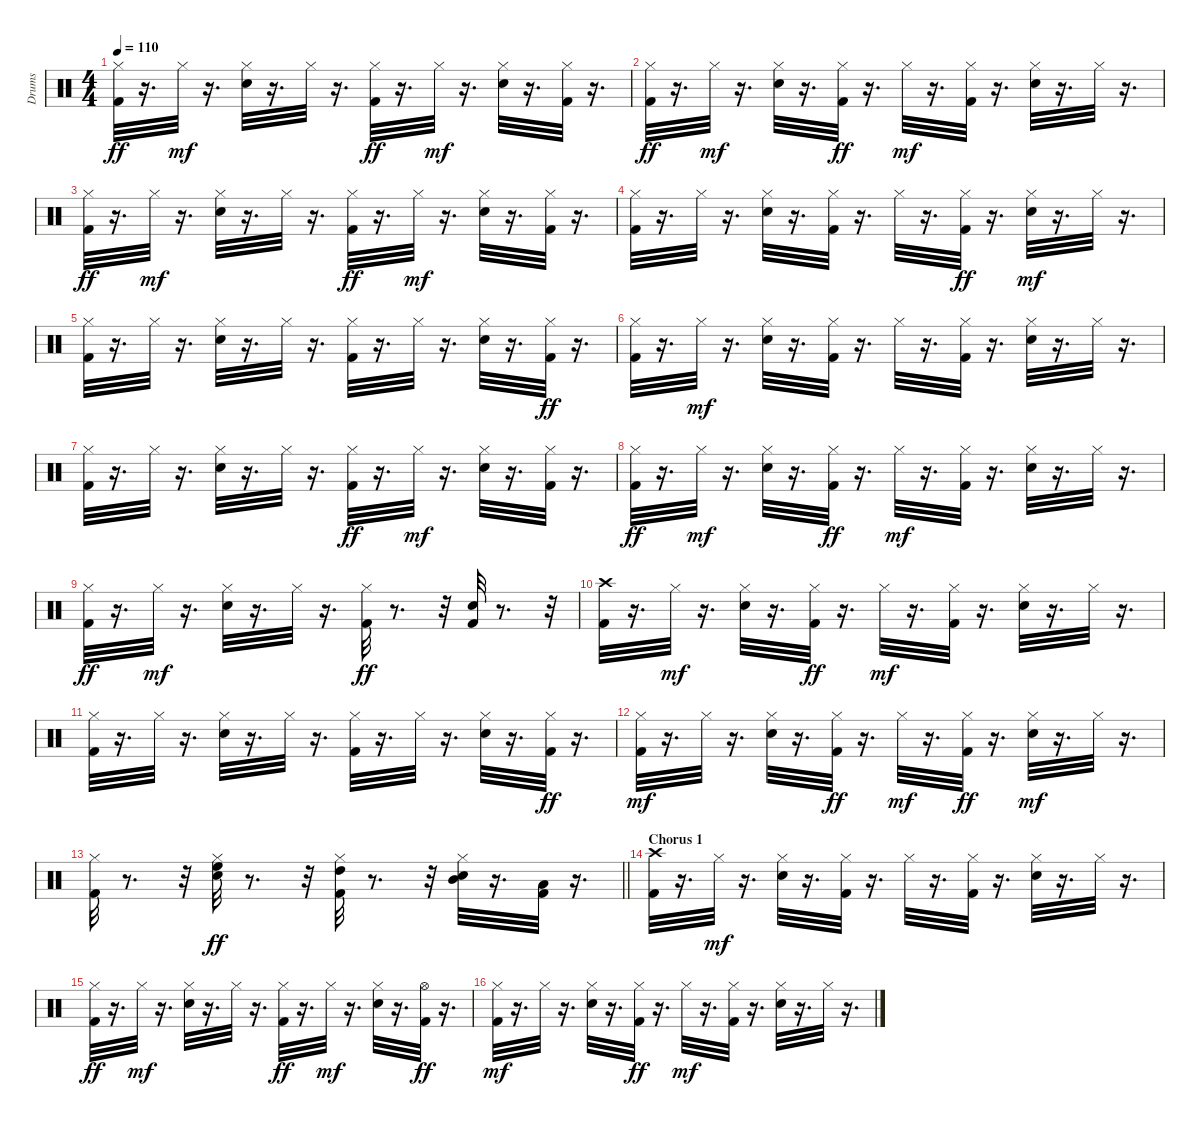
\track ("Drums" "Drums") {instrument percussion}
\staff {score}
\articulation defaults
\ts (4 4)
\tempo 110
\clef neutral
\ks c
("Hi-Hat (closed)" "Kick (hit) 2").32{dy ff} r.16{d} "Hi-Hat (closed)".32{dy mf} r.16{d} ("Hi-Hat (closed)" "Snare (hit) 2").32 r.16{d} "Hi-Hat (closed)".32 r.16{d} ("Hi-Hat (closed)" "Kick (hit) 2").32{dy ff} r.16{d} "Hi-Hat (closed)".32{dy mf} r.16{d} ("Hi-Hat (closed)" "Snare (hit) 2").32 r.16{d} ("Kick (hit) 2" "Hi-Hat (closed)").32 r.16{d} |
("Hi-Hat (closed)" "Kick (hit) 2").32{dy ff} r.16{d} "Hi-Hat (closed)".32{dy mf} r.16{d} ("Snare (hit) 2" "Hi-Hat (closed)").32 r.16{d} ("Hi-Hat (closed)" "Kick (hit) 2").32{dy ff} r.16{d} "Hi-Hat (closed)".32{dy mf} r.16{d} ("Kick (hit) 2" "Hi-Hat (closed)").32 r.16{d} ("Hi-Hat (closed)" "Snare (hit) 2").32 r.16{d} "Hi-Hat (closed)".32 r.16{d} |
("Hi-Hat (closed)" "Kick (hit) 2").32{dy ff} r.16{d} "Hi-Hat (closed)".32{dy mf} r.16{d} ("Snare (hit) 2" "Hi-Hat (closed)").32 r.16{d} "Hi-Hat (closed)".32 r.16{d} ("Hi-Hat (closed)" "Kick (hit) 2").32{dy ff} r.16{d} "Hi-Hat (closed)".32{dy mf} r.16{d} ("Snare (hit) 2" "Hi-Hat (closed)").32 r.16{d} ("Kick (hit) 2" "Hi-Hat (closed)").32 r.16{d} |
("Kick (hit) 2" "Hi-Hat (closed)").32 r.16{d} "Hi-Hat (closed)".32 r.16{d} ("Snare (hit) 2" "Hi-Hat (closed)").32 r.16{d} ("Kick (hit) 2" "Hi-Hat (closed)").32 r.16{d} "Hi-Hat (closed)".32 r.16{d} ("Hi-Hat (closed)" "Kick (hit) 2").32{dy ff} r.16{d} ("Snare (hit) 2" "Hi-Hat (closed)").32{dy mf} r.16{d} "Hi-Hat (closed)".32 r.16{d} |
("Kick (hit) 2" "Hi-Hat (closed)").32 r.16{d} "Hi-Hat (closed)".32 r.16{d} ("Hi-Hat (closed)" "Snare (hit) 2").32 r.16{d} "Hi-Hat (closed)".32 r.16{d} ("Kick (hit) 2" "Hi-Hat (closed)").32 r.16{d} "Hi-Hat (closed)".32 r.16{d} ("Snare (hit) 2" "Hi-Hat (closed)").32 r.16{d} ("Hi-Hat (closed)" "Kick (hit) 2").32{dy ff} r.16{d} |
("Hi-Hat (closed)" "Kick (hit) 2").32 r.16{d} "Hi-Hat (closed)".32{dy mf} r.16{d} ("Snare (hit) 2" "Hi-Hat (closed)").32 r.16{d} ("Kick (hit) 2" "Hi-Hat (closed)").32 r.16{d} "Hi-Hat (closed)".32 r.16{d} ("Kick (hit) 2" "Hi-Hat (closed)").32 r.16{d} ("Hi-Hat (closed)" "Snare (hit) 2").32 r.16{d} "Hi-Hat (closed)".32 r.16{d} |
("Kick (hit) 2" "Hi-Hat (closed)").32 r.16{d} "Hi-Hat (closed)".32 r.16{d} ("Snare (hit) 2" "Hi-Hat (closed)").32 r.16{d} "Hi-Hat (closed)".32 r.16{d} ("Hi-Hat (closed)" "Kick (hit) 2").32{dy ff} r.16{d} "Hi-Hat (closed)".32{dy mf} r.16{d} ("Hi-Hat (closed)" "Snare (hit) 2").32 r.16{d} ("Kick (hit) 2" "Hi-Hat (closed)").32 r.16{d} |
("Hi-Hat (closed)" "Kick (hit) 2").32{dy ff} r.16{d} "Hi-Hat (closed)".32{dy mf} r.16{d} ("Hi-Hat (closed)" "Snare (hit) 2").32 r.16{d} ("Hi-Hat (closed)" "Kick (hit) 2").32{dy ff} r.16{d} "Hi-Hat (closed)".32{dy mf} r.16{d} ("Kick (hit) 2" "Hi-Hat (closed)").32 r.16{d} ("Hi-Hat (closed)" "Snare (hit) 2").32 r.16{d} "Hi-Hat (closed)".32 r.16{d} |
("Hi-Hat (closed)" "Kick (hit) 2").32{dy ff} r.16{d} "Hi-Hat (closed)".32{dy mf} r.16{d} ("Hi-Hat (closed)" "Snare (hit) 2").32 r.16{d} "Hi-Hat (closed)".32 r.16{d} ("Hi-Hat (closed)" "Kick (hit) 2").32{dy ff} r.8{d} r.32 ("Snare (hit) 2" "Kick (hit) 2").32 r.8{d} r.32 |
("Kick (hit) 2" "Crash high (hit)").32 r.16{d} "Hi-Hat (closed)".32{dy mf} r.16{d} ("Hi-Hat (closed)" "Snare (hit) 2").32 r.16{d} ("Hi-Hat (closed)" "Kick (hit) 2").32{dy ff} r.16{d} "Hi-Hat (closed)".32{dy mf} r.16{d} ("Kick (hit) 2" "Hi-Hat (closed)").32 r.16{d} ("Snare (hit) 2" "Hi-Hat (closed)").32 r.16{d} "Hi-Hat (closed)".32 r.16{d} |
("Kick (hit) 2" "Hi-Hat (closed)").32 r.16{d} "Hi-Hat (closed)".32 r.16{d} ("Snare (hit) 2" "Hi-Hat (closed)").32 r.16{d} "Hi-Hat (closed)".32 r.16{d} ("Kick (hit) 2" "Hi-Hat (closed)").32 r.16{d} "Hi-Hat (closed)".32 r.16{d} ("Hi-Hat (closed)" "Snare (hit) 2").32 r.16{d} ("Hi-Hat (closed)" "Kick (hit) 2").32{dy ff} r.16{d} |
("Kick (hit) 2" "Hi-Hat (closed)").32{dy mf} r.16{d} "Hi-Hat (closed)".32 r.16{d} ("Snare (hit) 2" "Hi-Hat (closed)").32 r.16{d} ("Hi-Hat (closed)" "Kick (hit) 2").32{dy ff} r.16{d} "Hi-Hat (closed)".32{dy mf} r.16{d} ("Hi-Hat (closed)" "Kick (hit) 2").32{dy ff} r.16{d} ("Snare (hit) 2" "Hi-Hat (closed)").32{dy mf} r.16{d} "Hi-Hat (closed)".32 r.16{d} |
\barLineRight lightlight
("Kick (hit) 2" "Hi-Hat (closed)").32 r.8{d} r.32 ("Snare (hit) 2" "Hi-Hat (closed)" "High Floor Tom (hit)").32{dy ff} r.8{d} r.32 ("Kick (hit) 2" "Hi-Hat (closed)" "High Tom (hit)").32 r.8{d} r.32 ("Hi-Hat (closed)" "Snare (hit) 2" "Mid Tom (hit)").32 r.16{d} ("Kick (hit) 2" "Low Tom (hit)").32 r.16{d} |
\section ("" "Chorus 1")
("Kick (hit) 2" "Crash high (hit)").32 r.16{d} "Hi-Hat (closed)".32{dy mf} r.16{d} ("Hi-Hat (closed)" "Snare (hit) 2").32 r.16{d} ("Kick (hit) 2" "Hi-Hat (closed)").32 r.16{d} "Hi-Hat (closed)".32 r.16{d} ("Kick (hit) 2" "Hi-Hat (closed)").32 r.16{d} ("Hi-Hat (closed)" "Snare (hit) 2").32 r.16{d} "Hi-Hat (closed)".32 r.16{d} |
("Hi-Hat (closed)" "Kick (hit) 2").32{dy ff} r.16{d} "Hi-Hat (closed)".32{dy mf} r.16{d} ("Hi-Hat (closed)" "Snare (hit) 2").32 r.16{d} "Hi-Hat (closed)".32 r.16{d} ("Hi-Hat (closed)" "Kick (hit) 2").32{dy ff} r.16{d} "Hi-Hat (closed)".32{dy mf} r.16{d} ("Hi-Hat (closed)" "Snare (hit) 2").32 r.16{d} ("Hi-Hat (open)" "Kick (hit) 2").32{dy ff} r.16{d} |
("Kick (hit) 2" "Hi-Hat (closed)").32{dy mf} r.16{d} "Hi-Hat (closed)".32 r.16{d} ("Hi-Hat (closed)" "Snare (hit) 2").32 r.16{d} ("Hi-Hat (closed)" "Kick (hit) 2").32{dy ff} r.16{d} "Hi-Hat (closed)".32{dy mf} r.16{d} ("Kick (hit) 2" "Hi-Hat (closed)").32 r.16{d} ("Snare (hit) 2" "Hi-Hat (closed)").32 r.16{d} "Hi-Hat (closed)".32 r.16{d}
